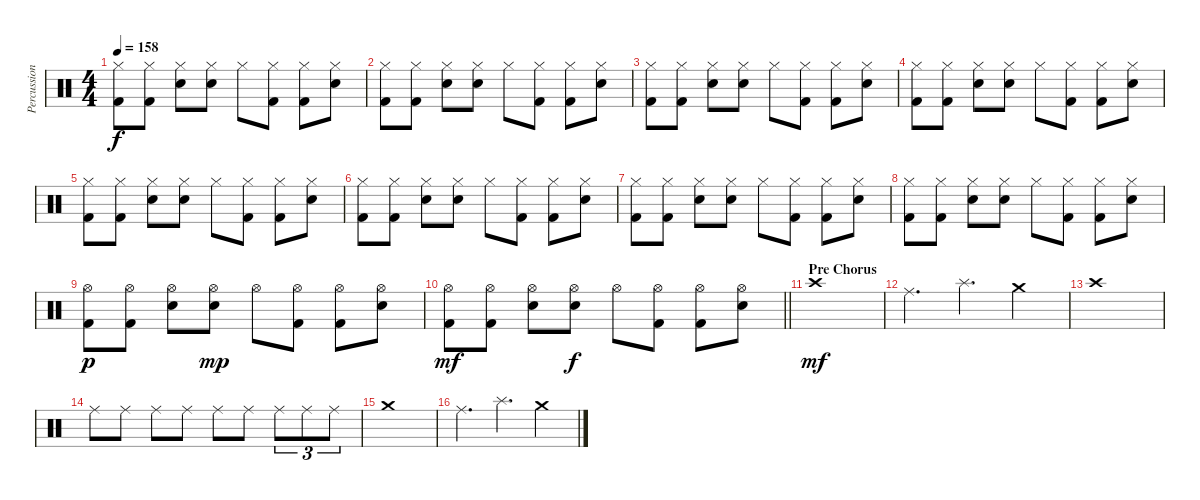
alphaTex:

\track ("Percussion" "Percussion") {instrument percussion}
\staff {score}
\articulation defaults
\ts (4 4)
\tempo 158
\clef neutral
\ks c
("Hi-Hat (closed)" "Kick (hit) 2").8{dy f} ("Hi-Hat (closed)" "Kick (hit) 2").8 ("Hi-Hat (closed)" "Electric Snare (hit)").8 ("Hi-Hat (closed)" "Electric Snare (hit)").8 "Hi-Hat (closed)".8 ("Hi-Hat (closed)" "Kick (hit) 2").8 ("Hi-Hat (closed)" "Kick (hit) 2").8 ("Hi-Hat (closed)" "Electric Snare (hit)").8 |
("Hi-Hat (closed)" "Kick (hit) 2").8 ("Hi-Hat (closed)" "Kick (hit) 2").8 ("Hi-Hat (closed)" "Electric Snare (hit)").8 ("Hi-Hat (closed)" "Electric Snare (hit)").8 "Hi-Hat (closed)".8 ("Hi-Hat (closed)" "Kick (hit) 2").8 ("Hi-Hat (closed)" "Kick (hit) 2").8 ("Hi-Hat (closed)" "Electric Snare (hit)").8 |
("Hi-Hat (closed)" "Kick (hit) 2").8 ("Hi-Hat (closed)" "Kick (hit) 2").8 ("Hi-Hat (closed)" "Electric Snare (hit)").8 ("Hi-Hat (closed)" "Electric Snare (hit)").8 "Hi-Hat (closed)".8 ("Hi-Hat (closed)" "Kick (hit) 2").8 ("Hi-Hat (closed)" "Kick (hit) 2").8 ("Hi-Hat (closed)" "Electric Snare (hit)").8 |
("Hi-Hat (closed)" "Kick (hit) 2").8 ("Hi-Hat (closed)" "Kick (hit) 2").8 ("Hi-Hat (closed)" "Electric Snare (hit)").8 ("Hi-Hat (closed)" "Electric Snare (hit)").8 "Hi-Hat (closed)".8 ("Hi-Hat (closed)" "Kick (hit) 2").8 ("Hi-Hat (closed)" "Kick (hit) 2").8 ("Hi-Hat (closed)" "Electric Snare (hit)").8 |
("Hi-Hat (closed)" "Kick (hit) 2").8 ("Hi-Hat (closed)" "Kick (hit) 2").8 ("Hi-Hat (closed)" "Electric Snare (hit)").8 ("Hi-Hat (closed)" "Electric Snare (hit)").8 "Hi-Hat (closed)".8 ("Hi-Hat (closed)" "Kick (hit) 2").8 ("Hi-Hat (closed)" "Kick (hit) 2").8 ("Hi-Hat (closed)" "Electric Snare (hit)").8 |
("Hi-Hat (closed)" "Kick (hit) 2").8 ("Hi-Hat (closed)" "Kick (hit) 2").8 ("Hi-Hat (closed)" "Electric Snare (hit)").8 ("Hi-Hat (closed)" "Electric Snare (hit)").8 "Hi-Hat (closed)".8 ("Hi-Hat (closed)" "Kick (hit) 2").8 ("Hi-Hat (closed)" "Kick (hit) 2").8 ("Hi-Hat (closed)" "Electric Snare (hit)").8 |
("Hi-Hat (closed)" "Kick (hit) 2").8 ("Hi-Hat (closed)" "Kick (hit) 2").8 ("Hi-Hat (closed)" "Electric Snare (hit)").8 ("Hi-Hat (closed)" "Electric Snare (hit)").8 "Hi-Hat (closed)".8 ("Hi-Hat (closed)" "Kick (hit) 2").8 ("Hi-Hat (closed)" "Kick (hit) 2").8 ("Hi-Hat (closed)" "Electric Snare (hit)").8 |
("Hi-Hat (closed)" "Kick (hit) 2").8 ("Hi-Hat (closed)" "Kick (hit) 2").8 ("Hi-Hat (closed)" "Electric Snare (hit)").8 ("Hi-Hat (closed)" "Electric Snare (hit)").8 "Hi-Hat (closed)".8 ("Hi-Hat (closed)" "Kick (hit) 2").8 ("Hi-Hat (closed)" "Kick (hit) 2").8 ("Hi-Hat (closed)" "Electric Snare (hit)").8 |
("Hi-Hat (open)" "Kick (hit) 2").8{dy p} ("Hi-Hat (open)" "Kick (hit) 2").8 ("Hi-Hat (open)" "Electric Snare (hit)").8 ("Hi-Hat (open)" "Electric Snare (hit)").8{dy mp} "Hi-Hat (open)".8 ("Hi-Hat (open)" "Kick (hit) 2").8 ("Hi-Hat (open)" "Kick (hit) 2").8 ("Hi-Hat (open)" "Electric Snare (hit)").8 |
\barLineRight lightlight
("Hi-Hat (open)" "Kick (hit) 2").8{dy mf} ("Hi-Hat (open)" "Kick (hit) 2").8 ("Hi-Hat (open)" "Electric Snare (hit)").8 ("Hi-Hat (open)" "Electric Snare (hit)").8{dy f} "Hi-Hat (open)".8 ("Hi-Hat (open)" "Kick (hit) 2").8 ("Hi-Hat (open)" "Kick (hit) 2").8 ("Hi-Hat (open)" "Electric Snare (hit)").8 |
\section ("" "Pre Chorus")
"Crash high (hit)".1{dy mf} |
"Ride (middle)".4{d} "Splash (hit)".4{d} "Crash medium (hit)".4 |
"Crash high (hit)".1 |
"Ride (middle)".8 "Ride (middle)".8 "Ride (middle)".8 "Ride (middle)".8 "Ride (middle)".8 "Ride (middle)".8 "Ride (middle)".8{tu (3 2)} "Ride (middle)".8{tu (3 2)} "Ride (middle)".8{tu (3 2)} |
"Crash medium (hit)".1 |
"Ride (middle)".4{d} "Splash (hit)".4{d} "Crash medium (hit)".4
